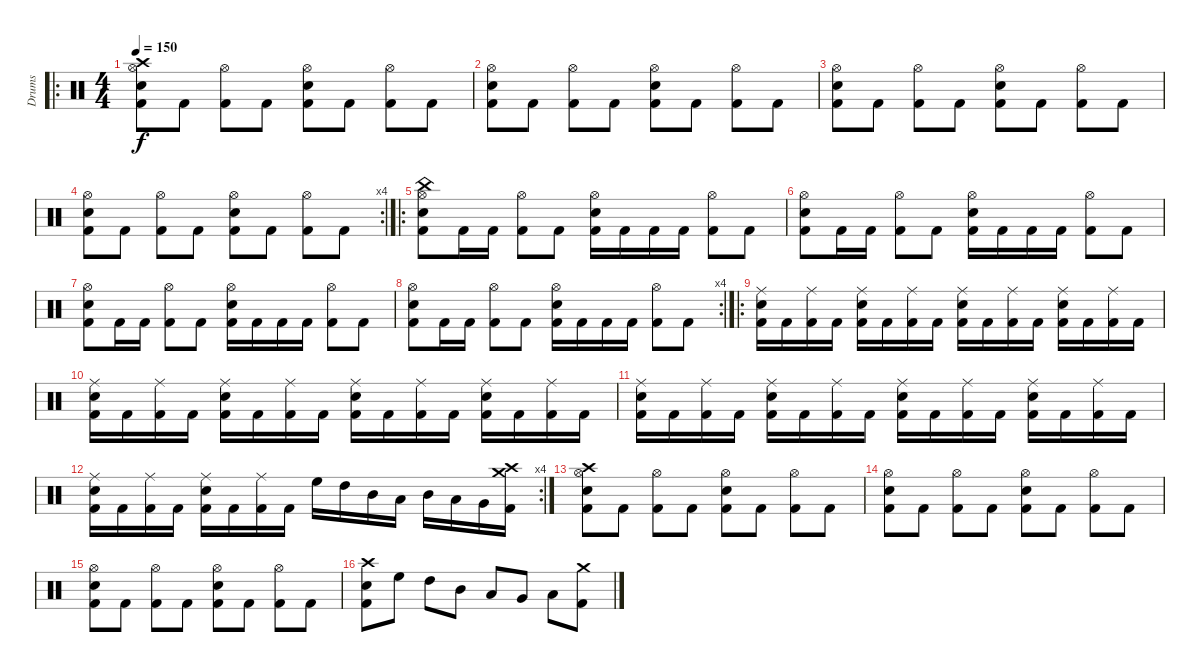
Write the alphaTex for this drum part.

\track ("Drums" "Drums") {instrument percussion}
\staff {score}
\articulation defaults
\ro
\ts (4 4)
\tempo 150
\clef neutral
\ks c
("Crash high (hit)" "Hi-Hat (open)" "Snare (hit) 2" "Kick (hit) 2").8{dy f} "Kick (hit) 2".8 ("Hi-Hat (open)" "Kick (hit) 2").8 "Kick (hit) 2".8 ("Hi-Hat (open)" "Snare (hit) 2" "Kick (hit) 2").8 "Kick (hit) 2".8 ("Hi-Hat (open)" "Kick (hit) 2").8 "Kick (hit) 2".8 |
("Hi-Hat (open)" "Snare (hit) 2" "Kick (hit) 2").8 "Kick (hit) 2".8 ("Hi-Hat (open)" "Kick (hit) 2").8 "Kick (hit) 2".8 ("Hi-Hat (open)" "Snare (hit) 2" "Kick (hit) 2").8 "Kick (hit) 2".8 ("Hi-Hat (open)" "Kick (hit) 2").8 "Kick (hit) 2".8 |
("Hi-Hat (open)" "Snare (hit) 2" "Kick (hit) 2").8 "Kick (hit) 2".8 ("Hi-Hat (open)" "Kick (hit) 2").8 "Kick (hit) 2".8 ("Hi-Hat (open)" "Snare (hit) 2" "Kick (hit) 2").8 "Kick (hit) 2".8 ("Hi-Hat (open)" "Kick (hit) 2").8 "Kick (hit) 2".8 |
\rc 4
("Hi-Hat (open)" "Snare (hit) 2" "Kick (hit) 2").8 "Kick (hit) 2".8 ("Hi-Hat (open)" "Kick (hit) 2").8 "Kick (hit) 2".8 ("Hi-Hat (open)" "Snare (hit) 2" "Kick (hit) 2").8 "Kick (hit) 2".8 ("Hi-Hat (open)" "Kick (hit) 2").8 "Kick (hit) 2".8 |
\ro
("China (hit)" "Hi-Hat (open)" "Snare (hit) 2" "Kick (hit) 2").8 "Kick (hit) 2".16 "Kick (hit) 2".16 ("Hi-Hat (open)" "Kick (hit) 2").8 "Kick (hit) 2".8 ("Hi-Hat (open)" "Snare (hit) 2" "Kick (hit) 2").16 "Kick (hit) 2".16 "Kick (hit) 2".16 "Kick (hit) 2".16 ("Hi-Hat (open)" "Kick (hit) 2").8 "Kick (hit) 2".8 |
("Hi-Hat (open)" "Snare (hit) 2" "Kick (hit) 2").8 "Kick (hit) 2".16 "Kick (hit) 2".16 ("Hi-Hat (open)" "Kick (hit) 2").8 "Kick (hit) 2".8 ("Hi-Hat (open)" "Snare (hit) 2" "Kick (hit) 2").16 "Kick (hit) 2".16 "Kick (hit) 2".16 "Kick (hit) 2".16 ("Hi-Hat (open)" "Kick (hit) 2").8 "Kick (hit) 2".8 |
("Hi-Hat (open)" "Snare (hit) 2" "Kick (hit) 2").8 "Kick (hit) 2".16 "Kick (hit) 2".16 ("Hi-Hat (open)" "Kick (hit) 2").8 "Kick (hit) 2".8 ("Hi-Hat (open)" "Snare (hit) 2" "Kick (hit) 2").16 "Kick (hit) 2".16 "Kick (hit) 2".16 "Kick (hit) 2".16 ("Hi-Hat (open)" "Kick (hit) 2").8 "Kick (hit) 2".8 |
\rc 4
("Hi-Hat (open)" "Snare (hit) 2" "Kick (hit) 2").8 "Kick (hit) 2".16 "Kick (hit) 2".16 ("Hi-Hat (open)" "Kick (hit) 2").8 "Kick (hit) 2".8 ("Hi-Hat (open)" "Snare (hit) 2" "Kick (hit) 2").16 "Kick (hit) 2".16 "Kick (hit) 2".16 "Kick (hit) 2".16 ("Hi-Hat (open)" "Kick (hit) 2").8 "Kick (hit) 2".8 |
\ro
("Ride (middle)" "Snare (hit) 2" "Kick (hit) 2").16 "Kick (hit) 2".16 ("Ride (middle)" "Kick (hit) 2").16 "Kick (hit) 2".16 ("Ride (middle)" "Snare (hit) 2" "Kick (hit) 2").16 "Kick (hit) 2".16 ("Ride (middle)" "Kick (hit) 2").16 "Kick (hit) 2".16 ("Ride (middle)" "Snare (hit) 2" "Kick (hit) 2").16 "Kick (hit) 2".16 ("Ride (middle)" "Kick (hit) 2").16 "Kick (hit) 2".16 ("Ride (middle)" "Snare (hit) 2" "Kick (hit) 2").16 "Kick (hit) 2".16 ("Ride (middle)" "Kick (hit) 2").16 "Kick (hit) 2".16 |
("Ride (middle)" "Snare (hit) 2" "Kick (hit) 2").16 "Kick (hit) 2".16 ("Ride (middle)" "Kick (hit) 2").16 "Kick (hit) 2".16 ("Ride (middle)" "Snare (hit) 2" "Kick (hit) 2").16 "Kick (hit) 2".16 ("Ride (middle)" "Kick (hit) 2").16 "Kick (hit) 2".16 ("Ride (middle)" "Snare (hit) 2" "Kick (hit) 2").16 "Kick (hit) 2".16 ("Ride (middle)" "Kick (hit) 2").16 "Kick (hit) 2".16 ("Ride (middle)" "Snare (hit) 2" "Kick (hit) 2").16 "Kick (hit) 2".16 ("Ride (middle)" "Kick (hit) 2").16 "Kick (hit) 2".16 |
("Ride (middle)" "Snare (hit) 2" "Kick (hit) 2").16 "Kick (hit) 2".16 ("Ride (middle)" "Kick (hit) 2").16 "Kick (hit) 2".16 ("Ride (middle)" "Snare (hit) 2" "Kick (hit) 2").16 "Kick (hit) 2".16 ("Ride (middle)" "Kick (hit) 2").16 "Kick (hit) 2".16 ("Ride (middle)" "Snare (hit) 2" "Kick (hit) 2").16 "Kick (hit) 2".16 ("Ride (middle)" "Kick (hit) 2").16 "Kick (hit) 2".16 ("Ride (middle)" "Snare (hit) 2" "Kick (hit) 2").16 "Kick (hit) 2".16 ("Ride (middle)" "Kick (hit) 2").16 "Kick (hit) 2".16 |
\rc 4
("Ride (middle)" "Snare (hit) 2" "Kick (hit) 2").16 "Kick (hit) 2".16 ("Ride (middle)" "Kick (hit) 2").16 "Kick (hit) 2".16 ("Ride (middle)" "Snare (hit) 2" "Kick (hit) 2").16 "Kick (hit) 2".16 ("Ride (middle)" "Kick (hit) 2").16 "Kick (hit) 2".16 "High Floor Tom (hit)".16 "High Tom (hit)".16 "Mid Tom (hit)".16 "Low Tom (hit)".16 "Mid Tom (hit)".16 "Low Tom (hit)".16 "Very Low Tom (hit)".16 ("Crash medium (hit)" "Crash high (hit)" "Kick (hit) 2").16 |
("Crash high (hit)" "Hi-Hat (open)" "Snare (hit) 2" "Kick (hit) 2").8 "Kick (hit) 2".8 ("Hi-Hat (open)" "Kick (hit) 2").8 "Kick (hit) 2".8 ("Hi-Hat (open)" "Snare (hit) 2" "Kick (hit) 2").8 "Kick (hit) 2".8 ("Hi-Hat (open)" "Kick (hit) 2").8 "Kick (hit) 2".8 |
("Hi-Hat (open)" "Snare (hit) 2" "Kick (hit) 2").8 "Kick (hit) 2".8 ("Hi-Hat (open)" "Kick (hit) 2").8 "Kick (hit) 2".8 ("Hi-Hat (open)" "Snare (hit) 2" "Kick (hit) 2").8 "Kick (hit) 2".8 ("Hi-Hat (open)" "Kick (hit) 2").8 "Kick (hit) 2".8 |
("Hi-Hat (open)" "Snare (hit) 2" "Kick (hit) 2").8 "Kick (hit) 2".8 ("Hi-Hat (open)" "Kick (hit) 2").8 "Kick (hit) 2".8 ("Hi-Hat (open)" "Snare (hit) 2" "Kick (hit) 2").8 "Kick (hit) 2".8 ("Hi-Hat (open)" "Kick (hit) 2").8 "Kick (hit) 2".8 |
("Crash high (hit)" "Snare (hit) 2" "Kick (hit) 2").8 "High Floor Tom (hit)".8 "High Tom (hit)".8 "Mid Tom (hit)".8 "Low Tom (hit)".8 "Very Low Tom (hit)".8 "Low Floor Tom (hit)".8 ("Crash medium (hit)" "Kick (hit) 2").8
